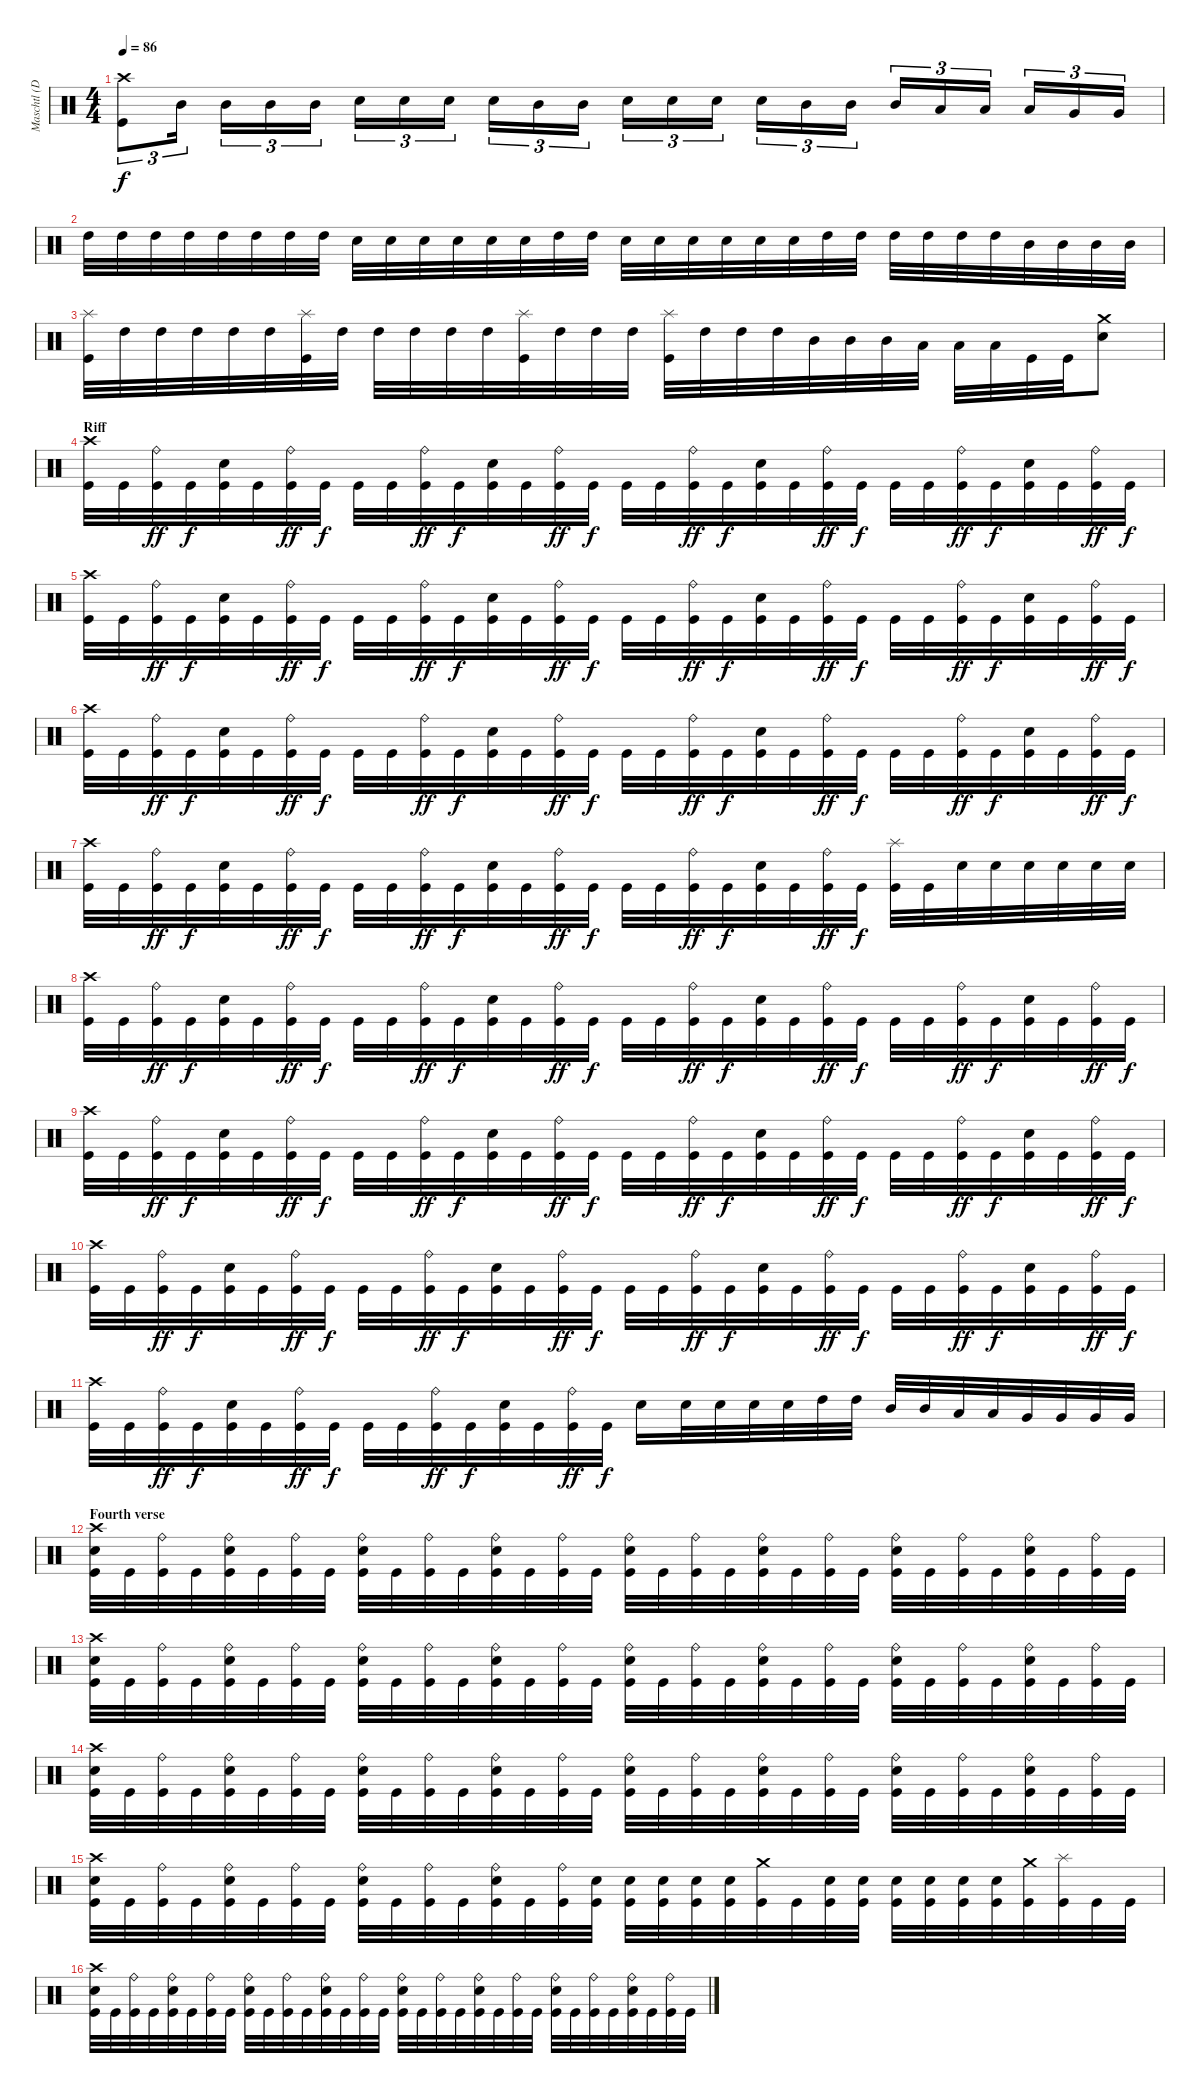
\track ("Maschtl (Drums)" "Maschtl (D") {instrument percussion}
\staff {score}
\articulation defaults
\ts (4 4)
\tempo 86
\clef neutral
\ks c
("Crash high (hit)" "Kick (hit)").8{tu (3 2) dy f} "Mid Tom (hit)".16{tu (3 2)} "Mid Tom (hit)".16{tu (3 2)} "Mid Tom (hit)".16{tu (3 2)} "Mid Tom (hit)".16{tu (3 2)} "Electric Snare (hit)".16{tu (3 2)} "Electric Snare (hit)".16{tu (3 2)} "Electric Snare (hit)".16{tu (3 2)} "Electric Snare (hit)".16{tu (3 2)} "Mid Tom (hit)".16{tu (3 2)} "Mid Tom (hit)".16{tu (3 2)} "Electric Snare (hit)".16{tu (3 2)} "Electric Snare (hit)".16{tu (3 2)} "Electric Snare (hit)".16{tu (3 2)} "Electric Snare (hit)".16{tu (3 2)} "Mid Tom (hit)".16{tu (3 2)} "Mid Tom (hit)".16{tu (3 2)} "Mid Tom (hit)".16{tu (3 2)} "Low Tom (hit)".16{tu (3 2)} "Low Tom (hit)".16{tu (3 2)} "Low Tom (hit)".16{tu (3 2)} "Very Low Tom (hit)".16{tu (3 2)} "Very Low Tom (hit)".16{tu (3 2)} |
"High Tom (hit)".32 "High Tom (hit)".32 "High Tom (hit)".32 "High Tom (hit)".32 "High Tom (hit)".32 "High Tom (hit)".32 "High Tom (hit)".32 "High Tom (hit)".32 "Electric Snare (hit)".32 "Electric Snare (hit)".32 "Electric Snare (hit)".32 "Electric Snare (hit)".32 "Electric Snare (hit)".32 "Electric Snare (hit)".32 "High Tom (hit)".32 "High Tom (hit)".32 "Electric Snare (hit)".32 "Electric Snare (hit)".32 "Electric Snare (hit)".32 "Electric Snare (hit)".32 "Electric Snare (hit)".32 "Electric Snare (hit)".32 "High Tom (hit)".32 "High Tom (hit)".32 "High Tom (hit)".32 "High Tom (hit)".32 "High Tom (hit)".32 "High Tom (hit)".32 "Mid Tom (hit)".32 "Mid Tom (hit)".32 "Mid Tom (hit)".32 "Mid Tom (hit)".32 |
("Splash (hit)" "Kick (hit)").32 "High Tom (hit)".32 "High Tom (hit)".32 "High Tom (hit)".32 "High Tom (hit)".32 "High Tom (hit)".32 ("Splash (hit)" "Kick (hit)").32 "High Tom (hit)".32 "High Tom (hit)".32 "High Tom (hit)".32 "High Tom (hit)".32 "High Tom (hit)".32 ("Splash (hit)" "Kick (hit)").32 "High Tom (hit)".32 "High Tom (hit)".32 "High Tom (hit)".32 ("Splash (hit)" "Kick (hit)").32 "High Tom (hit)".32 "High Tom (hit)".32 "High Tom (hit)".32 "Mid Tom (hit)".32 "Mid Tom (hit)".32 "Mid Tom (hit)".32 "Low Tom (hit)".32 "Low Tom (hit)".32 "Low Tom (hit)".32 "Kick (hit)".32 "Kick (hit)".32 ("Crash medium (hit)" "Electric Snare (hit)").8 |
\section ("" "Riff")
("Crash high (hit)" "Kick (hit)").32 "Kick (hit)".32 ("Ride (bell)" "Kick (hit)").32{dy ff} "Kick (hit)".32{dy f} ("Electric Snare (hit)" "Kick (hit)").32 "Kick (hit)".32 ("Ride (bell)" "Kick (hit)").32{dy ff} "Kick (hit)".32{dy f} "Kick (hit)".32 "Kick (hit)".32 ("Ride (bell)" "Kick (hit)").32{dy ff} "Kick (hit)".32{dy f} ("Electric Snare (hit)" "Kick (hit)").32 "Kick (hit)".32 ("Ride (bell)" "Kick (hit)").32{dy ff} "Kick (hit)".32{dy f} "Kick (hit)".32 "Kick (hit)".32 ("Ride (bell)" "Kick (hit)").32{dy ff} "Kick (hit)".32{dy f} ("Electric Snare (hit)" "Kick (hit)").32 "Kick (hit)".32 ("Ride (bell)" "Kick (hit)").32{dy ff} "Kick (hit)".32{dy f} "Kick (hit)".32 "Kick (hit)".32 ("Ride (bell)" "Kick (hit)").32{dy ff} "Kick (hit)".32{dy f} ("Electric Snare (hit)" "Kick (hit)").32 "Kick (hit)".32 ("Ride (bell)" "Kick (hit)").32{dy ff} "Kick (hit)".32{dy f} |
("Crash high (hit)" "Kick (hit)").32 "Kick (hit)".32 ("Ride (bell)" "Kick (hit)").32{dy ff} "Kick (hit)".32{dy f} ("Electric Snare (hit)" "Kick (hit)").32 "Kick (hit)".32 ("Ride (bell)" "Kick (hit)").32{dy ff} "Kick (hit)".32{dy f} "Kick (hit)".32 "Kick (hit)".32 ("Ride (bell)" "Kick (hit)").32{dy ff} "Kick (hit)".32{dy f} ("Electric Snare (hit)" "Kick (hit)").32 "Kick (hit)".32 ("Ride (bell)" "Kick (hit)").32{dy ff} "Kick (hit)".32{dy f} "Kick (hit)".32 "Kick (hit)".32 ("Ride (bell)" "Kick (hit)").32{dy ff} "Kick (hit)".32{dy f} ("Electric Snare (hit)" "Kick (hit)").32 "Kick (hit)".32 ("Ride (bell)" "Kick (hit)").32{dy ff} "Kick (hit)".32{dy f} "Kick (hit)".32 "Kick (hit)".32 ("Ride (bell)" "Kick (hit)").32{dy ff} "Kick (hit)".32{dy f} ("Electric Snare (hit)" "Kick (hit)").32 "Kick (hit)".32 ("Ride (bell)" "Kick (hit)").32{dy ff} "Kick (hit)".32{dy f} |
("Crash high (hit)" "Kick (hit)").32 "Kick (hit)".32 ("Ride (bell)" "Kick (hit)").32{dy ff} "Kick (hit)".32{dy f} ("Electric Snare (hit)" "Kick (hit)").32 "Kick (hit)".32 ("Ride (bell)" "Kick (hit)").32{dy ff} "Kick (hit)".32{dy f} "Kick (hit)".32 "Kick (hit)".32 ("Ride (bell)" "Kick (hit)").32{dy ff} "Kick (hit)".32{dy f} ("Electric Snare (hit)" "Kick (hit)").32 "Kick (hit)".32 ("Ride (bell)" "Kick (hit)").32{dy ff} "Kick (hit)".32{dy f} "Kick (hit)".32 "Kick (hit)".32 ("Ride (bell)" "Kick (hit)").32{dy ff} "Kick (hit)".32{dy f} ("Electric Snare (hit)" "Kick (hit)").32 "Kick (hit)".32 ("Ride (bell)" "Kick (hit)").32{dy ff} "Kick (hit)".32{dy f} "Kick (hit)".32 "Kick (hit)".32 ("Ride (bell)" "Kick (hit)").32{dy ff} "Kick (hit)".32{dy f} ("Electric Snare (hit)" "Kick (hit)").32 "Kick (hit)".32 ("Ride (bell)" "Kick (hit)").32{dy ff} "Kick (hit)".32{dy f} |
("Crash high (hit)" "Kick (hit)").32 "Kick (hit)".32 ("Ride (bell)" "Kick (hit)").32{dy ff} "Kick (hit)".32{dy f} ("Electric Snare (hit)" "Kick (hit)").32 "Kick (hit)".32 ("Ride (bell)" "Kick (hit)").32{dy ff} "Kick (hit)".32{dy f} "Kick (hit)".32 "Kick (hit)".32 ("Ride (bell)" "Kick (hit)").32{dy ff} "Kick (hit)".32{dy f} ("Electric Snare (hit)" "Kick (hit)").32 "Kick (hit)".32 ("Ride (bell)" "Kick (hit)").32{dy ff} "Kick (hit)".32{dy f} "Kick (hit)".32 "Kick (hit)".32 ("Ride (bell)" "Kick (hit)").32{dy ff} "Kick (hit)".32{dy f} ("Electric Snare (hit)" "Kick (hit)").32 "Kick (hit)".32 ("Ride (bell)" "Kick (hit)").32{dy ff} "Kick (hit)".32{dy f} ("Splash (hit)" "Kick (hit)").32 "Kick (hit)".32 "Electric Snare (hit)".32 "Electric Snare (hit)".32 "Electric Snare (hit)".32 "Electric Snare (hit)".32 "Electric Snare (hit)".32 "Electric Snare (hit)".32 |
("Crash high (hit)" "Kick (hit)").32 "Kick (hit)".32 ("Ride (bell)" "Kick (hit)").32{dy ff} "Kick (hit)".32{dy f} ("Electric Snare (hit)" "Kick (hit)").32 "Kick (hit)".32 ("Ride (bell)" "Kick (hit)").32{dy ff} "Kick (hit)".32{dy f} "Kick (hit)".32 "Kick (hit)".32 ("Ride (bell)" "Kick (hit)").32{dy ff} "Kick (hit)".32{dy f} ("Electric Snare (hit)" "Kick (hit)").32 "Kick (hit)".32 ("Ride (bell)" "Kick (hit)").32{dy ff} "Kick (hit)".32{dy f} "Kick (hit)".32 "Kick (hit)".32 ("Ride (bell)" "Kick (hit)").32{dy ff} "Kick (hit)".32{dy f} ("Electric Snare (hit)" "Kick (hit)").32 "Kick (hit)".32 ("Ride (bell)" "Kick (hit)").32{dy ff} "Kick (hit)".32{dy f} "Kick (hit)".32 "Kick (hit)".32 ("Ride (bell)" "Kick (hit)").32{dy ff} "Kick (hit)".32{dy f} ("Electric Snare (hit)" "Kick (hit)").32 "Kick (hit)".32 ("Ride (bell)" "Kick (hit)").32{dy ff} "Kick (hit)".32{dy f} |
("Crash high (hit)" "Kick (hit)").32 "Kick (hit)".32 ("Ride (bell)" "Kick (hit)").32{dy ff} "Kick (hit)".32{dy f} ("Electric Snare (hit)" "Kick (hit)").32 "Kick (hit)".32 ("Ride (bell)" "Kick (hit)").32{dy ff} "Kick (hit)".32{dy f} "Kick (hit)".32 "Kick (hit)".32 ("Ride (bell)" "Kick (hit)").32{dy ff} "Kick (hit)".32{dy f} ("Electric Snare (hit)" "Kick (hit)").32 "Kick (hit)".32 ("Ride (bell)" "Kick (hit)").32{dy ff} "Kick (hit)".32{dy f} "Kick (hit)".32 "Kick (hit)".32 ("Ride (bell)" "Kick (hit)").32{dy ff} "Kick (hit)".32{dy f} ("Electric Snare (hit)" "Kick (hit)").32 "Kick (hit)".32 ("Ride (bell)" "Kick (hit)").32{dy ff} "Kick (hit)".32{dy f} "Kick (hit)".32 "Kick (hit)".32 ("Ride (bell)" "Kick (hit)").32{dy ff} "Kick (hit)".32{dy f} ("Electric Snare (hit)" "Kick (hit)").32 "Kick (hit)".32 ("Ride (bell)" "Kick (hit)").32{dy ff} "Kick (hit)".32{dy f} |
("Crash high (hit)" "Kick (hit)").32 "Kick (hit)".32 ("Ride (bell)" "Kick (hit)").32{dy ff} "Kick (hit)".32{dy f} ("Electric Snare (hit)" "Kick (hit)").32 "Kick (hit)".32 ("Ride (bell)" "Kick (hit)").32{dy ff} "Kick (hit)".32{dy f} "Kick (hit)".32 "Kick (hit)".32 ("Ride (bell)" "Kick (hit)").32{dy ff} "Kick (hit)".32{dy f} ("Electric Snare (hit)" "Kick (hit)").32 "Kick (hit)".32 ("Ride (bell)" "Kick (hit)").32{dy ff} "Kick (hit)".32{dy f} "Kick (hit)".32 "Kick (hit)".32 ("Ride (bell)" "Kick (hit)").32{dy ff} "Kick (hit)".32{dy f} ("Electric Snare (hit)" "Kick (hit)").32 "Kick (hit)".32 ("Ride (bell)" "Kick (hit)").32{dy ff} "Kick (hit)".32{dy f} "Kick (hit)".32 "Kick (hit)".32 ("Ride (bell)" "Kick (hit)").32{dy ff} "Kick (hit)".32{dy f} ("Electric Snare (hit)" "Kick (hit)").32 "Kick (hit)".32 ("Ride (bell)" "Kick (hit)").32{dy ff} "Kick (hit)".32{dy f} |
("Crash high (hit)" "Kick (hit)").32 "Kick (hit)".32 ("Ride (bell)" "Kick (hit)").32{dy ff} "Kick (hit)".32{dy f} ("Electric Snare (hit)" "Kick (hit)").32 "Kick (hit)".32 ("Ride (bell)" "Kick (hit)").32{dy ff} "Kick (hit)".32{dy f} "Kick (hit)".32 "Kick (hit)".32 ("Ride (bell)" "Kick (hit)").32{dy ff} "Kick (hit)".32{dy f} ("Electric Snare (hit)" "Kick (hit)").32 "Kick (hit)".32 ("Ride (bell)" "Kick (hit)").32{dy ff} "Kick (hit)".32{dy f} "Electric Snare (hit)".16 "Electric Snare (hit)".32 "Electric Snare (hit)".32 "Electric Snare (hit)".32 "Electric Snare (hit)".32 "High Tom (hit)".32 "High Tom (hit)".32 "Mid Tom (hit)".32 "Mid Tom (hit)".32 "Low Tom (hit)".32 "Low Tom (hit)".32 "Very Low Tom (hit)".32 "Very Low Tom (hit)".32 "Very Low Tom (hit)".32 "Very Low Tom (hit)".32 |
\section ("" "Fourth verse")
("Crash high (hit)" "Electric Snare (hit)" "Kick (hit)").32 "Kick (hit)".32 ("Ride (bell)" "Kick (hit)").32 "Kick (hit)".32 ("Ride (bell)" "Electric Snare (hit)" "Kick (hit)").32 "Kick (hit)".32 ("Ride (bell)" "Kick (hit)").32 "Kick (hit)".32 ("Ride (bell)" "Electric Snare (hit)" "Kick (hit)").32 "Kick (hit)".32 ("Ride (bell)" "Kick (hit)").32 "Kick (hit)".32 ("Ride (bell)" "Electric Snare (hit)" "Kick (hit)").32 "Kick (hit)".32 ("Ride (bell)" "Kick (hit)").32 "Kick (hit)".32 ("Ride (bell)" "Electric Snare (hit)" "Kick (hit)").32 "Kick (hit)".32 ("Ride (bell)" "Kick (hit)").32 "Kick (hit)".32 ("Ride (bell)" "Electric Snare (hit)" "Kick (hit)").32 "Kick (hit)".32 ("Ride (bell)" "Kick (hit)").32 "Kick (hit)".32 ("Ride (bell)" "Electric Snare (hit)" "Kick (hit)").32 "Kick (hit)".32 ("Ride (bell)" "Kick (hit)").32 "Kick (hit)".32 ("Ride (bell)" "Electric Snare (hit)" "Kick (hit)").32 "Kick (hit)".32 ("Ride (bell)" "Kick (hit)").32 "Kick (hit)".32 |
("Crash high (hit)" "Electric Snare (hit)" "Kick (hit)").32 "Kick (hit)".32 ("Ride (bell)" "Kick (hit)").32 "Kick (hit)".32 ("Ride (bell)" "Electric Snare (hit)" "Kick (hit)").32 "Kick (hit)".32 ("Ride (bell)" "Kick (hit)").32 "Kick (hit)".32 ("Ride (bell)" "Electric Snare (hit)" "Kick (hit)").32 "Kick (hit)".32 ("Ride (bell)" "Kick (hit)").32 "Kick (hit)".32 ("Ride (bell)" "Electric Snare (hit)" "Kick (hit)").32 "Kick (hit)".32 ("Ride (bell)" "Kick (hit)").32 "Kick (hit)".32 ("Ride (bell)" "Electric Snare (hit)" "Kick (hit)").32 "Kick (hit)".32 ("Ride (bell)" "Kick (hit)").32 "Kick (hit)".32 ("Ride (bell)" "Electric Snare (hit)" "Kick (hit)").32 "Kick (hit)".32 ("Ride (bell)" "Kick (hit)").32 "Kick (hit)".32 ("Ride (bell)" "Electric Snare (hit)" "Kick (hit)").32 "Kick (hit)".32 ("Ride (bell)" "Kick (hit)").32 "Kick (hit)".32 ("Ride (bell)" "Electric Snare (hit)" "Kick (hit)").32 "Kick (hit)".32 ("Ride (bell)" "Kick (hit)").32 "Kick (hit)".32 |
("Crash high (hit)" "Electric Snare (hit)" "Kick (hit)").32 "Kick (hit)".32 ("Ride (bell)" "Kick (hit)").32 "Kick (hit)".32 ("Ride (bell)" "Electric Snare (hit)" "Kick (hit)").32 "Kick (hit)".32 ("Ride (bell)" "Kick (hit)").32 "Kick (hit)".32 ("Ride (bell)" "Electric Snare (hit)" "Kick (hit)").32 "Kick (hit)".32 ("Ride (bell)" "Kick (hit)").32 "Kick (hit)".32 ("Ride (bell)" "Electric Snare (hit)" "Kick (hit)").32 "Kick (hit)".32 ("Ride (bell)" "Kick (hit)").32 "Kick (hit)".32 ("Ride (bell)" "Electric Snare (hit)" "Kick (hit)").32 "Kick (hit)".32 ("Ride (bell)" "Kick (hit)").32 "Kick (hit)".32 ("Ride (bell)" "Electric Snare (hit)" "Kick (hit)").32 "Kick (hit)".32 ("Ride (bell)" "Kick (hit)").32 "Kick (hit)".32 ("Ride (bell)" "Electric Snare (hit)" "Kick (hit)").32 "Kick (hit)".32 ("Ride (bell)" "Kick (hit)").32 "Kick (hit)".32 ("Ride (bell)" "Electric Snare (hit)" "Kick (hit)").32 "Kick (hit)".32 ("Ride (bell)" "Kick (hit)").32 "Kick (hit)".32 |
("Crash high (hit)" "Electric Snare (hit)" "Kick (hit)").32 "Kick (hit)".32 ("Ride (bell)" "Kick (hit)").32 "Kick (hit)".32 ("Ride (bell)" "Electric Snare (hit)" "Kick (hit)").32 "Kick (hit)".32 ("Ride (bell)" "Kick (hit)").32 "Kick (hit)".32 ("Ride (bell)" "Electric Snare (hit)" "Kick (hit)").32 "Kick (hit)".32 ("Ride (bell)" "Kick (hit)").32 "Kick (hit)".32 ("Ride (bell)" "Electric Snare (hit)" "Kick (hit)").32 "Kick (hit)".32 ("Ride (bell)" "Kick (hit)").32 ("Electric Snare (hit)" "Kick (hit)").32 ("Electric Snare (hit)" "Kick (hit)").32 ("Electric Snare (hit)" "Kick (hit)").32 ("Electric Snare (hit)" "Kick (hit)").32 ("Electric Snare (hit)" "Kick (hit)").32 ("Crash medium (hit)" "Kick (hit)").32 "Kick (hit)".32 ("Electric Snare (hit)" "Kick (hit)").32 ("Electric Snare (hit)" "Kick (hit)").32 ("Electric Snare (hit)" "Kick (hit)").32 ("Electric Snare (hit)" "Kick (hit)").32 ("Electric Snare (hit)" "Kick (hit)").32 ("Electric Snare (hit)" "Kick (hit)").32 ("Crash medium (hit)" "Kick (hit)").32 ("Splash (hit)" "Kick (hit)").32 "Kick (hit)".32 "Kick (hit)".32 |
("Crash high (hit)" "Electric Snare (hit)" "Kick (hit)").32 "Kick (hit)".32 ("Ride (bell)" "Kick (hit)").32 "Kick (hit)".32 ("Ride (bell)" "Electric Snare (hit)" "Kick (hit)").32 "Kick (hit)".32 ("Ride (bell)" "Kick (hit)").32 "Kick (hit)".32 ("Ride (bell)" "Electric Snare (hit)" "Kick (hit)").32 "Kick (hit)".32 ("Ride (bell)" "Kick (hit)").32 "Kick (hit)".32 ("Ride (bell)" "Electric Snare (hit)" "Kick (hit)").32 "Kick (hit)".32 ("Ride (bell)" "Kick (hit)").32 "Kick (hit)".32 ("Ride (bell)" "Electric Snare (hit)" "Kick (hit)").32 "Kick (hit)".32 ("Ride (bell)" "Kick (hit)").32 "Kick (hit)".32 ("Ride (bell)" "Electric Snare (hit)" "Kick (hit)").32 "Kick (hit)".32 ("Ride (bell)" "Kick (hit)").32 "Kick (hit)".32 ("Ride (bell)" "Electric Snare (hit)" "Kick (hit)").32 "Kick (hit)".32 ("Ride (bell)" "Kick (hit)").32 "Kick (hit)".32 ("Ride (bell)" "Electric Snare (hit)" "Kick (hit)").32 "Kick (hit)".32 ("Ride (bell)" "Kick (hit)").32 "Kick (hit)".32
